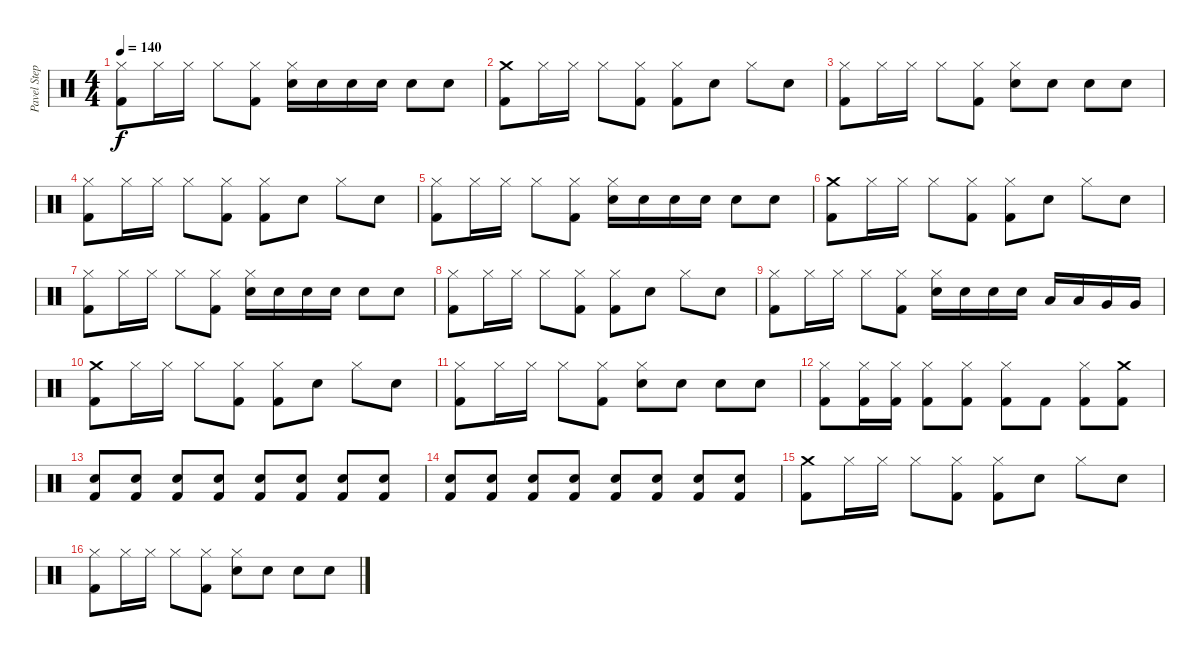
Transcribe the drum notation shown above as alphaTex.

\track ("Pavel Stepan" "Pavel Step") {instrument percussion}
\staff {score}
\articulation defaults
\ts (4 4)
\tempo 140
\clef neutral
\ks c
("Hi-Hat (closed)" "Kick (hit) 2").8{dy f} "Hi-Hat (closed)".16 "Hi-Hat (closed)".16 "Hi-Hat (closed)".8 ("Hi-Hat (closed)" "Kick (hit) 2").8 ("Hi-Hat (closed)" "Snare (hit) 2").16 "Snare (hit) 2".16 "Snare (hit) 2".16 "Snare (hit) 2".16 "Snare (hit) 2".8 "Snare (hit) 2".8 |
("Crash medium (hit)" "Kick (hit) 2").8 "Hi-Hat (closed)".16 "Hi-Hat (closed)".16 "Hi-Hat (closed)".8 ("Hi-Hat (closed)" "Kick (hit) 2").8 ("Hi-Hat (closed)" "Kick (hit) 2").8 "Snare (hit) 2".8 "Hi-Hat (closed)".8 "Snare (hit) 2".8 |
("Hi-Hat (closed)" "Kick (hit) 2").8 "Hi-Hat (closed)".16 "Hi-Hat (closed)".16 "Hi-Hat (closed)".8 ("Hi-Hat (closed)" "Kick (hit) 2").8 ("Hi-Hat (closed)" "Snare (hit) 2").8 "Snare (hit) 2".8 "Snare (hit) 2".8 "Snare (hit) 2".8 |
("Hi-Hat (closed)" "Kick (hit) 2").8 "Hi-Hat (closed)".16 "Hi-Hat (closed)".16 "Hi-Hat (closed)".8 ("Hi-Hat (closed)" "Kick (hit) 2").8 ("Hi-Hat (closed)" "Kick (hit) 2").8 "Snare (hit) 2".8 "Hi-Hat (closed)".8 "Snare (hit) 2".8 |
("Hi-Hat (closed)" "Kick (hit) 2").8 "Hi-Hat (closed)".16 "Hi-Hat (closed)".16 "Hi-Hat (closed)".8 ("Hi-Hat (closed)" "Kick (hit) 2").8 ("Hi-Hat (closed)" "Snare (hit) 2").16 "Snare (hit) 2".16 "Snare (hit) 2".16 "Snare (hit) 2".16 "Snare (hit) 2".8 "Snare (hit) 2".8 |
("Crash medium (hit)" "Kick (hit) 2").8 "Hi-Hat (closed)".16 "Hi-Hat (closed)".16 "Hi-Hat (closed)".8 ("Hi-Hat (closed)" "Kick (hit) 2").8 ("Hi-Hat (closed)" "Kick (hit) 2").8 "Snare (hit) 2".8 "Hi-Hat (closed)".8 "Snare (hit) 2".8 |
("Hi-Hat (closed)" "Kick (hit) 2").8 "Hi-Hat (closed)".16 "Hi-Hat (closed)".16 "Hi-Hat (closed)".8 ("Hi-Hat (closed)" "Kick (hit) 2").8 ("Hi-Hat (closed)" "Snare (hit) 2").16 "Snare (hit) 2".16 "Snare (hit) 2".16 "Snare (hit) 2".16 "Snare (hit) 2".8 "Snare (hit) 2".8 |
("Hi-Hat (closed)" "Kick (hit) 2").8 "Hi-Hat (closed)".16 "Hi-Hat (closed)".16 "Hi-Hat (closed)".8 ("Hi-Hat (closed)" "Kick (hit) 2").8 ("Hi-Hat (closed)" "Kick (hit) 2").8 "Snare (hit) 2".8 "Hi-Hat (closed)".8 "Snare (hit) 2".8 |
("Hi-Hat (closed)" "Kick (hit) 2").8 "Hi-Hat (closed)".16 "Hi-Hat (closed)".16 "Hi-Hat (closed)".8 ("Hi-Hat (closed)" "Kick (hit) 2").8 ("Hi-Hat (closed)" "Snare (hit) 2").16 "Snare (hit) 2".16 "Snare (hit) 2".16 "Snare (hit) 2".16 "Low Tom (hit)".16 "Low Tom (hit)".16 "Very Low Tom (hit)".16 "Very Low Tom (hit)".16 |
("Crash medium (hit)" "Kick (hit) 2").8 "Hi-Hat (closed)".16 "Hi-Hat (closed)".16 "Hi-Hat (closed)".8 ("Hi-Hat (closed)" "Kick (hit) 2").8 ("Hi-Hat (closed)" "Kick (hit) 2").8 "Snare (hit) 2".8 "Hi-Hat (closed)".8 "Snare (hit) 2".8 |
("Hi-Hat (closed)" "Kick (hit) 2").8 "Hi-Hat (closed)".16 "Hi-Hat (closed)".16 "Hi-Hat (closed)".8 ("Hi-Hat (closed)" "Kick (hit) 2").8 ("Hi-Hat (closed)" "Snare (hit) 2").8 "Snare (hit) 2".8 "Snare (hit) 2".8 "Snare (hit) 2".8 |
("Hi-Hat (closed)" "Kick (hit) 2").8 ("Hi-Hat (closed)" "Kick (hit) 2").16 ("Hi-Hat (closed)" "Kick (hit) 2").16 ("Hi-Hat (closed)" "Kick (hit) 2").8 ("Hi-Hat (closed)" "Kick (hit) 2").8 ("Hi-Hat (closed)" "Kick (hit) 2").8 "Kick (hit) 2".8 ("Hi-Hat (closed)" "Kick (hit) 2").8 ("Crash medium (hit)" "Kick (hit) 2").8 |
("Snare (hit) 2" "Kick (hit) 2").8{volume 3} ("Snare (hit) 2" "Kick (hit) 2").8 ("Snare (hit) 2" "Kick (hit) 2").8{volume 13} ("Snare (hit) 2" "Kick (hit) 2").8 ("Snare (hit) 2" "Kick (hit) 2").8 ("Snare (hit) 2" "Kick (hit) 2").8 ("Snare (hit) 2" "Kick (hit) 2").8 ("Snare (hit) 2" "Kick (hit) 2").8 |
("Snare (hit) 2" "Kick (hit) 2").8 ("Snare (hit) 2" "Kick (hit) 2").8 ("Snare (hit) 2" "Kick (hit) 2").8 ("Snare (hit) 2" "Kick (hit) 2").8 ("Snare (hit) 2" "Kick (hit) 2").8 ("Snare (hit) 2" "Kick (hit) 2").8 ("Snare (hit) 2" "Kick (hit) 2").8 ("Snare (hit) 2" "Kick (hit) 2").8 |
("Crash medium (hit)" "Kick (hit) 2").8 "Hi-Hat (closed)".16 "Hi-Hat (closed)".16 "Hi-Hat (closed)".8 ("Hi-Hat (closed)" "Kick (hit) 2").8 ("Hi-Hat (closed)" "Kick (hit) 2").8 "Snare (hit) 2".8 "Hi-Hat (closed)".8 "Snare (hit) 2".8 |
("Hi-Hat (closed)" "Kick (hit) 2").8 "Hi-Hat (closed)".16 "Hi-Hat (closed)".16 "Hi-Hat (closed)".8 ("Hi-Hat (closed)" "Kick (hit) 2").8 ("Hi-Hat (closed)" "Snare (hit) 2").8 "Snare (hit) 2".8 "Snare (hit) 2".8 "Snare (hit) 2".8
